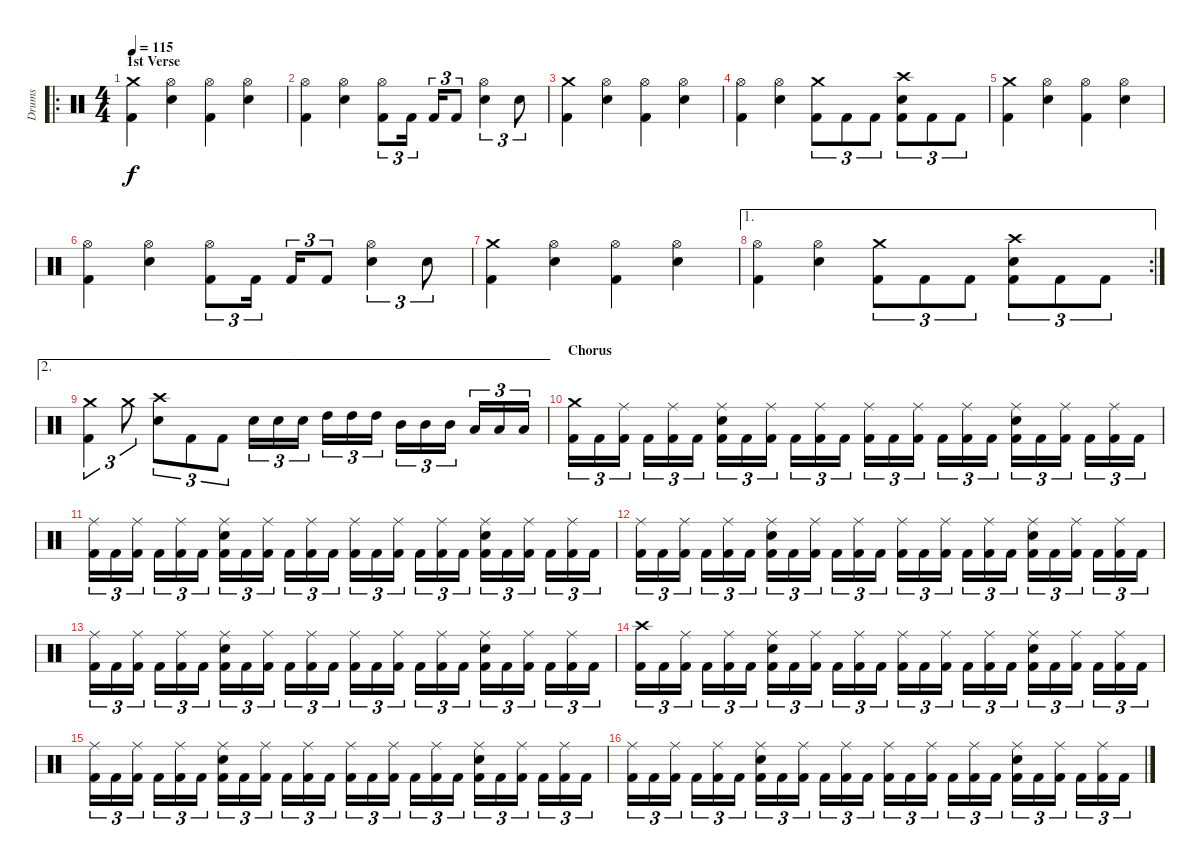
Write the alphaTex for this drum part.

\track ("Drums" "Drums") {instrument percussion}
\staff {score}
\articulation defaults
\ro
\ts (4 4)
\section ("" "1st Verse")
\tempo 115
\clef neutral
\ks c
("Kick (hit) 2" "Crash medium (hit)").4{dy f} ("Electric Snare (hit)" "Hi-Hat (open)").4 ("Kick (hit) 2" "Hi-Hat (open)").4 ("Electric Snare (hit)" "Hi-Hat (open)").4 |
("Kick (hit) 2" "Hi-Hat (open)").4 ("Electric Snare (hit)" "Hi-Hat (open)").4 ("Kick (hit) 2" "Hi-Hat (open)").8{tu (3 2)} "Kick (hit) 2".16{tu (3 2)} "Kick (hit) 2".16{tu (3 2)} "Kick (hit) 2".8{tu (3 2)} ("Electric Snare (hit)" "Hi-Hat (open)").4{tu (3 2)} "Electric Snare (hit)".8{tu (3 2)} |
("Kick (hit) 2" "Crash medium (hit)").4 ("Electric Snare (hit)" "Hi-Hat (open)").4 ("Kick (hit) 2" "Hi-Hat (open)").4 ("Electric Snare (hit)" "Hi-Hat (open)").4 |
("Kick (hit) 2" "Hi-Hat (open)").4 ("Electric Snare (hit)" "Hi-Hat (open)").4 ("Kick (hit) 2" "Crash medium (hit)").8{tu (3 2)} "Kick (hit) 2".8{tu (3 2)} "Kick (hit) 2".8{tu (3 2)} ("Kick (hit) 2" "Electric Snare (hit)" "Crash high (hit)").8{tu (3 2)} "Kick (hit) 2".8{tu (3 2)} "Kick (hit) 2".8{tu (3 2)} |
("Kick (hit) 2" "Crash medium (hit)").4 ("Electric Snare (hit)" "Hi-Hat (open)").4 ("Kick (hit) 2" "Hi-Hat (open)").4 ("Electric Snare (hit)" "Hi-Hat (open)").4 |
("Kick (hit) 2" "Hi-Hat (open)").4 ("Electric Snare (hit)" "Hi-Hat (open)").4 ("Kick (hit) 2" "Hi-Hat (open)").8{tu (3 2)} "Kick (hit) 2".16{tu (3 2)} "Kick (hit) 2".16{tu (3 2)} "Kick (hit) 2".8{tu (3 2)} ("Electric Snare (hit)" "Hi-Hat (open)").4{tu (3 2)} "Electric Snare (hit)".8{tu (3 2)} |
("Kick (hit) 2" "Crash medium (hit)").4 ("Electric Snare (hit)" "Hi-Hat (open)").4 ("Kick (hit) 2" "Hi-Hat (open)").4 ("Electric Snare (hit)" "Hi-Hat (open)").4 |
\ae 1
\rc 2
("Kick (hit) 2" "Hi-Hat (open)").4 ("Electric Snare (hit)" "Hi-Hat (open)").4 ("Kick (hit) 2" "Crash medium (hit)").8{tu (3 2)} "Kick (hit) 2".8{tu (3 2)} "Kick (hit) 2".8{tu (3 2)} ("Kick (hit) 2" "Electric Snare (hit)" "Crash high (hit)").8{tu (3 2)} "Kick (hit) 2".8{tu (3 2)} "Kick (hit) 2".8{tu (3 2)} |
\ae 2
("Kick (hit) 2" "Crash medium (hit)").4{tu (3 2)} "Crash medium (hit)".8{tu (3 2)} ("Electric Snare (hit)" "Crash high (hit)").8{tu (3 2)} "Kick (hit) 2".8{tu (3 2)} "Kick (hit) 2".8{tu (3 2)} "Electric Snare (hit)".16{tu (3 2)} "Electric Snare (hit)".16{tu (3 2)} "Electric Snare (hit)".16{tu (3 2)} "High Tom (hit)".16{tu (3 2)} "High Tom (hit)".16{tu (3 2)} "High Tom (hit)".16{tu (3 2)} "Mid Tom (hit)".16{tu (3 2)} "Mid Tom (hit)".16{tu (3 2)} "Mid Tom (hit)".16{tu (3 2)} "Low Tom (hit)".16{tu (3 2)} "Low Tom (hit)".16{tu (3 2)} "Low Tom (hit)".16{tu (3 2)} |
\section ("" "Chorus")
("Kick (hit) 2" "Crash medium (hit)").16{tu (3 2)} "Kick (hit) 2".16{tu (3 2)} ("Kick (hit) 2" "Ride (middle)").16{tu (3 2)} "Kick (hit) 2".16{tu (3 2)} ("Kick (hit) 2" "Ride (middle)").16{tu (3 2)} "Kick (hit) 2".16{tu (3 2)} ("Kick (hit) 2" "Electric Snare (hit)" "Ride (middle)").16{tu (3 2)} "Kick (hit) 2".16{tu (3 2)} ("Kick (hit) 2" "Ride (middle)").16{tu (3 2)} "Kick (hit) 2".16{tu (3 2)} ("Kick (hit) 2" "Ride (middle)").16{tu (3 2)} "Kick (hit) 2".16{tu (3 2)} ("Kick (hit) 2" "Ride (middle)").16{tu (3 2)} "Kick (hit) 2".16{tu (3 2)} ("Kick (hit) 2" "Ride (middle)").16{tu (3 2)} "Kick (hit) 2".16{tu (3 2)} ("Kick (hit) 2" "Ride (middle)").16{tu (3 2)} "Kick (hit) 2".16{tu (3 2)} ("Kick (hit) 2" "Electric Snare (hit)" "Ride (middle)").16{tu (3 2)} "Kick (hit) 2".16{tu (3 2)} ("Kick (hit) 2" "Ride (middle)").16{tu (3 2)} "Kick (hit) 2".16{tu (3 2)} ("Kick (hit) 2" "Ride (middle)").16{tu (3 2)} "Kick (hit) 2".16{tu (3 2)} |
("Kick (hit) 2" "Ride (middle)").16{tu (3 2)} "Kick (hit) 2".16{tu (3 2)} ("Kick (hit) 2" "Ride (middle)").16{tu (3 2)} "Kick (hit) 2".16{tu (3 2)} ("Kick (hit) 2" "Ride (middle)").16{tu (3 2)} "Kick (hit) 2".16{tu (3 2)} ("Kick (hit) 2" "Electric Snare (hit)" "Ride (middle)").16{tu (3 2)} "Kick (hit) 2".16{tu (3 2)} ("Kick (hit) 2" "Ride (middle)").16{tu (3 2)} "Kick (hit) 2".16{tu (3 2)} ("Kick (hit) 2" "Ride (middle)").16{tu (3 2)} "Kick (hit) 2".16{tu (3 2)} ("Kick (hit) 2" "Ride (middle)").16{tu (3 2)} "Kick (hit) 2".16{tu (3 2)} ("Kick (hit) 2" "Ride (middle)").16{tu (3 2)} "Kick (hit) 2".16{tu (3 2)} ("Kick (hit) 2" "Ride (middle)").16{tu (3 2)} "Kick (hit) 2".16{tu (3 2)} ("Kick (hit) 2" "Electric Snare (hit)" "Ride (middle)").16{tu (3 2)} "Kick (hit) 2".16{tu (3 2)} ("Kick (hit) 2" "Ride (middle)").16{tu (3 2)} "Kick (hit) 2".16{tu (3 2)} ("Kick (hit) 2" "Ride (middle)").16{tu (3 2)} "Kick (hit) 2".16{tu (3 2)} |
("Kick (hit) 2" "Ride (middle)").16{tu (3 2)} "Kick (hit) 2".16{tu (3 2)} ("Kick (hit) 2" "Ride (middle)").16{tu (3 2)} "Kick (hit) 2".16{tu (3 2)} ("Kick (hit) 2" "Ride (middle)").16{tu (3 2)} "Kick (hit) 2".16{tu (3 2)} ("Kick (hit) 2" "Electric Snare (hit)" "Ride (middle)").16{tu (3 2)} "Kick (hit) 2".16{tu (3 2)} ("Kick (hit) 2" "Ride (middle)").16{tu (3 2)} "Kick (hit) 2".16{tu (3 2)} ("Kick (hit) 2" "Ride (middle)").16{tu (3 2)} "Kick (hit) 2".16{tu (3 2)} ("Kick (hit) 2" "Ride (middle)").16{tu (3 2)} "Kick (hit) 2".16{tu (3 2)} ("Kick (hit) 2" "Ride (middle)").16{tu (3 2)} "Kick (hit) 2".16{tu (3 2)} ("Kick (hit) 2" "Ride (middle)").16{tu (3 2)} "Kick (hit) 2".16{tu (3 2)} ("Kick (hit) 2" "Electric Snare (hit)" "Ride (middle)").16{tu (3 2)} "Kick (hit) 2".16{tu (3 2)} ("Kick (hit) 2" "Ride (middle)").16{tu (3 2)} "Kick (hit) 2".16{tu (3 2)} ("Kick (hit) 2" "Ride (middle)").16{tu (3 2)} "Kick (hit) 2".16{tu (3 2)} |
("Kick (hit) 2" "Ride (middle)").16{tu (3 2)} "Kick (hit) 2".16{tu (3 2)} ("Kick (hit) 2" "Ride (middle)").16{tu (3 2)} "Kick (hit) 2".16{tu (3 2)} ("Kick (hit) 2" "Ride (middle)").16{tu (3 2)} "Kick (hit) 2".16{tu (3 2)} ("Kick (hit) 2" "Electric Snare (hit)" "Ride (middle)").16{tu (3 2)} "Kick (hit) 2".16{tu (3 2)} ("Kick (hit) 2" "Ride (middle)").16{tu (3 2)} "Kick (hit) 2".16{tu (3 2)} ("Kick (hit) 2" "Ride (middle)").16{tu (3 2)} "Kick (hit) 2".16{tu (3 2)} ("Kick (hit) 2" "Ride (middle)").16{tu (3 2)} "Kick (hit) 2".16{tu (3 2)} ("Kick (hit) 2" "Ride (middle)").16{tu (3 2)} "Kick (hit) 2".16{tu (3 2)} ("Kick (hit) 2" "Ride (middle)").16{tu (3 2)} "Kick (hit) 2".16{tu (3 2)} ("Kick (hit) 2" "Electric Snare (hit)" "Ride (middle)").16{tu (3 2)} "Kick (hit) 2".16{tu (3 2)} ("Kick (hit) 2" "Ride (middle)").16{tu (3 2)} "Kick (hit) 2".16{tu (3 2)} ("Kick (hit) 2" "Ride (middle)").16{tu (3 2)} "Kick (hit) 2".16{tu (3 2)} |
("Kick (hit) 2" "Crash high (hit)").16{tu (3 2)} "Kick (hit) 2".16{tu (3 2)} ("Kick (hit) 2" "Ride (middle)").16{tu (3 2)} "Kick (hit) 2".16{tu (3 2)} ("Kick (hit) 2" "Ride (middle)").16{tu (3 2)} "Kick (hit) 2".16{tu (3 2)} ("Kick (hit) 2" "Electric Snare (hit)" "Ride (middle)").16{tu (3 2)} "Kick (hit) 2".16{tu (3 2)} ("Kick (hit) 2" "Ride (middle)").16{tu (3 2)} "Kick (hit) 2".16{tu (3 2)} ("Kick (hit) 2" "Ride (middle)").16{tu (3 2)} "Kick (hit) 2".16{tu (3 2)} ("Kick (hit) 2" "Ride (middle)").16{tu (3 2)} "Kick (hit) 2".16{tu (3 2)} ("Kick (hit) 2" "Ride (middle)").16{tu (3 2)} "Kick (hit) 2".16{tu (3 2)} ("Kick (hit) 2" "Ride (middle)").16{tu (3 2)} "Kick (hit) 2".16{tu (3 2)} ("Kick (hit) 2" "Electric Snare (hit)" "Ride (middle)").16{tu (3 2)} "Kick (hit) 2".16{tu (3 2)} ("Kick (hit) 2" "Ride (middle)").16{tu (3 2)} "Kick (hit) 2".16{tu (3 2)} ("Kick (hit) 2" "Ride (middle)").16{tu (3 2)} "Kick (hit) 2".16{tu (3 2)} |
("Kick (hit) 2" "Ride (middle)").16{tu (3 2)} "Kick (hit) 2".16{tu (3 2)} ("Kick (hit) 2" "Ride (middle)").16{tu (3 2)} "Kick (hit) 2".16{tu (3 2)} ("Kick (hit) 2" "Ride (middle)").16{tu (3 2)} "Kick (hit) 2".16{tu (3 2)} ("Kick (hit) 2" "Electric Snare (hit)" "Ride (middle)").16{tu (3 2)} "Kick (hit) 2".16{tu (3 2)} ("Kick (hit) 2" "Ride (middle)").16{tu (3 2)} "Kick (hit) 2".16{tu (3 2)} ("Kick (hit) 2" "Ride (middle)").16{tu (3 2)} "Kick (hit) 2".16{tu (3 2)} ("Kick (hit) 2" "Ride (middle)").16{tu (3 2)} "Kick (hit) 2".16{tu (3 2)} ("Kick (hit) 2" "Ride (middle)").16{tu (3 2)} "Kick (hit) 2".16{tu (3 2)} ("Kick (hit) 2" "Ride (middle)").16{tu (3 2)} "Kick (hit) 2".16{tu (3 2)} ("Kick (hit) 2" "Electric Snare (hit)" "Ride (middle)").16{tu (3 2)} "Kick (hit) 2".16{tu (3 2)} ("Kick (hit) 2" "Ride (middle)").16{tu (3 2)} "Kick (hit) 2".16{tu (3 2)} ("Kick (hit) 2" "Ride (middle)").16{tu (3 2)} "Kick (hit) 2".16{tu (3 2)} |
("Kick (hit) 2" "Ride (middle)").16{tu (3 2)} "Kick (hit) 2".16{tu (3 2)} ("Kick (hit) 2" "Ride (middle)").16{tu (3 2)} "Kick (hit) 2".16{tu (3 2)} ("Kick (hit) 2" "Ride (middle)").16{tu (3 2)} "Kick (hit) 2".16{tu (3 2)} ("Kick (hit) 2" "Electric Snare (hit)" "Ride (middle)").16{tu (3 2)} "Kick (hit) 2".16{tu (3 2)} ("Kick (hit) 2" "Ride (middle)").16{tu (3 2)} "Kick (hit) 2".16{tu (3 2)} ("Kick (hit) 2" "Ride (middle)").16{tu (3 2)} "Kick (hit) 2".16{tu (3 2)} ("Kick (hit) 2" "Ride (middle)").16{tu (3 2)} "Kick (hit) 2".16{tu (3 2)} ("Kick (hit) 2" "Ride (middle)").16{tu (3 2)} "Kick (hit) 2".16{tu (3 2)} ("Kick (hit) 2" "Ride (middle)").16{tu (3 2)} "Kick (hit) 2".16{tu (3 2)} ("Kick (hit) 2" "Electric Snare (hit)" "Ride (middle)").16{tu (3 2)} "Kick (hit) 2".16{tu (3 2)} ("Kick (hit) 2" "Ride (middle)").16{tu (3 2)} "Kick (hit) 2".16{tu (3 2)} ("Kick (hit) 2" "Ride (middle)").16{tu (3 2)} "Kick (hit) 2".16{tu (3 2)}
